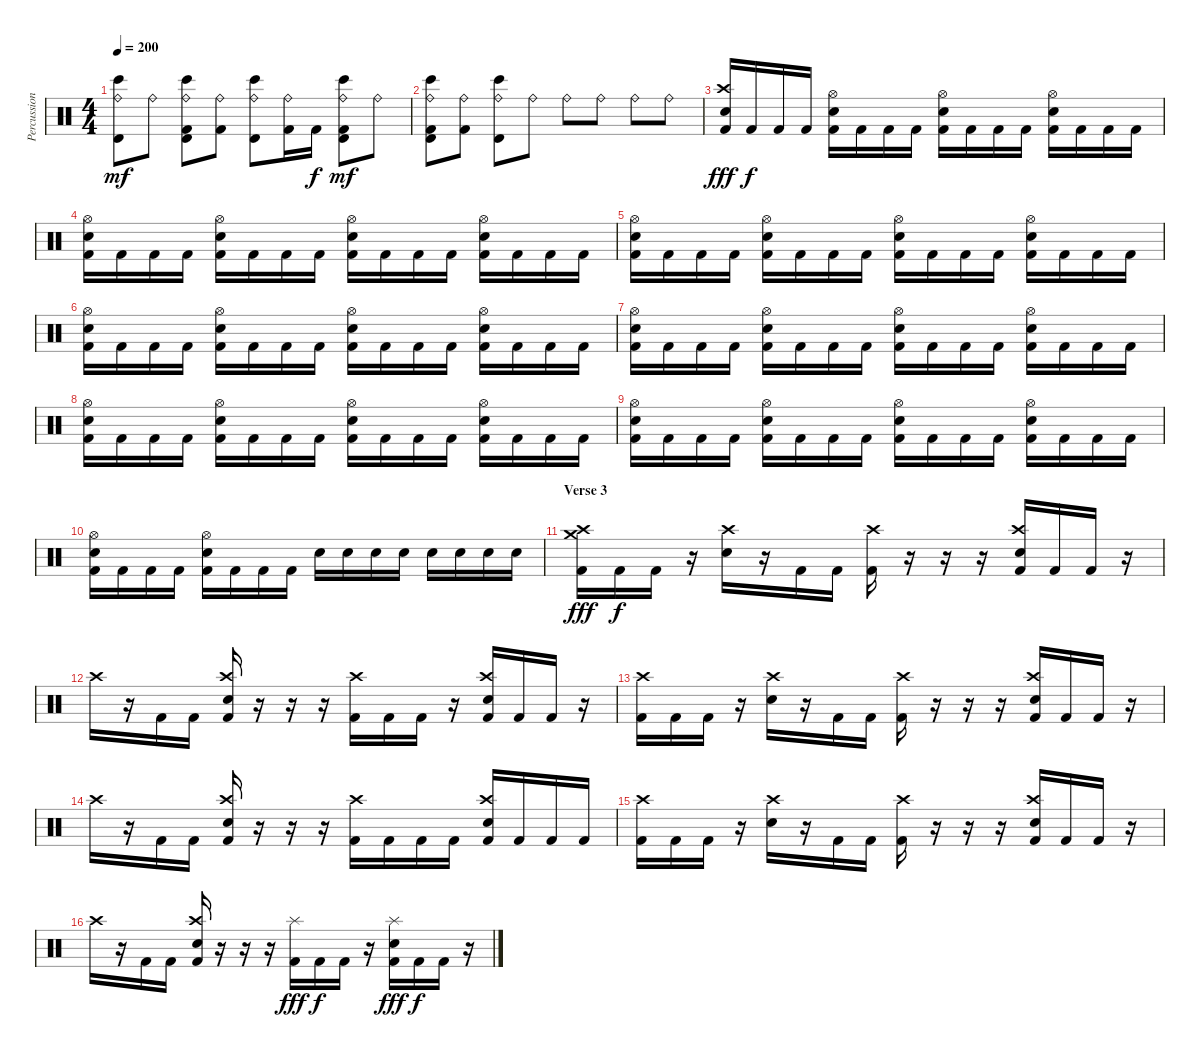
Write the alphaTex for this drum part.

\track ("Percussions" "Percussion") {instrument percussion}
\staff {score}
\articulation defaults
\ts (4 4)
\tempo 200
\clef neutral
\ks c
("Ride (bell)" "Timbale high (hit)" "Bongo High (hit)").8{dy mf} "Ride (bell)".8 ("Ride (bell)" "Timbale high (hit)" "Bongo High (hit)" "Kick (hit) 2").8 ("Ride (bell)" "Kick (hit) 2").8 ("Ride (bell)" "Timbale high (hit)" "Bongo High (hit)").8 ("Ride (bell)" "Kick (hit) 2").16 "Kick (hit) 2".16{dy f} ("Ride (bell)" "Timbale high (hit)" "Bongo High (hit)" "Kick (hit) 2").8{dy mf} "Ride (bell)".8 |
("Ride (bell)" "Timbale high (hit)" "Bongo High (hit)" "Kick (hit) 2").8 ("Ride (bell)" "Kick (hit) 2").8 ("Ride (bell)" "Timbale high (hit)" "Bongo High (hit)").8 "Ride (bell)".8 "Ride (bell)".8 "Ride (bell)".8 "Ride (bell)".8 "Ride (bell)".8 |
("Crash high (hit)" "Electric Snare (hit)" "Kick (hit) 2").16{dy fff} "Kick (hit) 2".16{dy f} "Kick (hit) 2".16 "Kick (hit) 2".16 ("Hi-Hat (open)" "Electric Snare (hit)" "Kick (hit) 2").16 "Kick (hit) 2".16 "Kick (hit) 2".16 "Kick (hit) 2".16 ("Hi-Hat (open)" "Electric Snare (hit)" "Kick (hit) 2").16 "Kick (hit) 2".16 "Kick (hit) 2".16 "Kick (hit) 2".16 ("Hi-Hat (open)" "Electric Snare (hit)" "Kick (hit) 2").16 "Kick (hit) 2".16 "Kick (hit) 2".16 "Kick (hit) 2".16 |
("Hi-Hat (open)" "Electric Snare (hit)" "Kick (hit) 2").16 "Kick (hit) 2".16 "Kick (hit) 2".16 "Kick (hit) 2".16 ("Hi-Hat (open)" "Electric Snare (hit)" "Kick (hit) 2").16 "Kick (hit) 2".16 "Kick (hit) 2".16 "Kick (hit) 2".16 ("Hi-Hat (open)" "Electric Snare (hit)" "Kick (hit) 2").16 "Kick (hit) 2".16 "Kick (hit) 2".16 "Kick (hit) 2".16 ("Hi-Hat (open)" "Electric Snare (hit)" "Kick (hit) 2").16 "Kick (hit) 2".16 "Kick (hit) 2".16 "Kick (hit) 2".16 |
("Hi-Hat (open)" "Electric Snare (hit)" "Kick (hit) 2").16 "Kick (hit) 2".16 "Kick (hit) 2".16 "Kick (hit) 2".16 ("Hi-Hat (open)" "Electric Snare (hit)" "Kick (hit) 2").16 "Kick (hit) 2".16 "Kick (hit) 2".16 "Kick (hit) 2".16 ("Hi-Hat (open)" "Electric Snare (hit)" "Kick (hit) 2").16 "Kick (hit) 2".16 "Kick (hit) 2".16 "Kick (hit) 2".16 ("Hi-Hat (open)" "Electric Snare (hit)" "Kick (hit) 2").16 "Kick (hit) 2".16 "Kick (hit) 2".16 "Kick (hit) 2".16 |
("Hi-Hat (open)" "Electric Snare (hit)" "Kick (hit) 2").16 "Kick (hit) 2".16 "Kick (hit) 2".16 "Kick (hit) 2".16 ("Hi-Hat (open)" "Electric Snare (hit)" "Kick (hit) 2").16 "Kick (hit) 2".16 "Kick (hit) 2".16 "Kick (hit) 2".16 ("Hi-Hat (open)" "Electric Snare (hit)" "Kick (hit) 2").16 "Kick (hit) 2".16 "Kick (hit) 2".16 "Kick (hit) 2".16 ("Hi-Hat (open)" "Electric Snare (hit)" "Kick (hit) 2").16 "Kick (hit) 2".16 "Kick (hit) 2".16 "Kick (hit) 2".16 |
("Hi-Hat (open)" "Electric Snare (hit)" "Kick (hit) 2").16 "Kick (hit) 2".16 "Kick (hit) 2".16 "Kick (hit) 2".16 ("Hi-Hat (open)" "Electric Snare (hit)" "Kick (hit) 2").16 "Kick (hit) 2".16 "Kick (hit) 2".16 "Kick (hit) 2".16 ("Hi-Hat (open)" "Electric Snare (hit)" "Kick (hit) 2").16 "Kick (hit) 2".16 "Kick (hit) 2".16 "Kick (hit) 2".16 ("Hi-Hat (open)" "Electric Snare (hit)" "Kick (hit) 2").16 "Kick (hit) 2".16 "Kick (hit) 2".16 "Kick (hit) 2".16 |
("Hi-Hat (open)" "Electric Snare (hit)" "Kick (hit) 2").16 "Kick (hit) 2".16 "Kick (hit) 2".16 "Kick (hit) 2".16 ("Hi-Hat (open)" "Electric Snare (hit)" "Kick (hit) 2").16 "Kick (hit) 2".16 "Kick (hit) 2".16 "Kick (hit) 2".16 ("Hi-Hat (open)" "Electric Snare (hit)" "Kick (hit) 2").16 "Kick (hit) 2".16 "Kick (hit) 2".16 "Kick (hit) 2".16 ("Hi-Hat (open)" "Electric Snare (hit)" "Kick (hit) 2").16 "Kick (hit) 2".16 "Kick (hit) 2".16 "Kick (hit) 2".16 |
("Hi-Hat (open)" "Electric Snare (hit)" "Kick (hit) 2").16 "Kick (hit) 2".16 "Kick (hit) 2".16 "Kick (hit) 2".16 ("Hi-Hat (open)" "Electric Snare (hit)" "Kick (hit) 2").16 "Kick (hit) 2".16 "Kick (hit) 2".16 "Kick (hit) 2".16 ("Hi-Hat (open)" "Electric Snare (hit)" "Kick (hit) 2").16 "Kick (hit) 2".16 "Kick (hit) 2".16 "Kick (hit) 2".16 ("Hi-Hat (open)" "Electric Snare (hit)" "Kick (hit) 2").16 "Kick (hit) 2".16 "Kick (hit) 2".16 "Kick (hit) 2".16 |
("Hi-Hat (open)" "Electric Snare (hit)" "Kick (hit) 2").16 "Kick (hit) 2".16 "Kick (hit) 2".16 "Kick (hit) 2".16 ("Hi-Hat (open)" "Electric Snare (hit)" "Kick (hit) 2").16 "Kick (hit) 2".16 "Kick (hit) 2".16 "Kick (hit) 2".16 "Electric Snare (hit)".16 "Electric Snare (hit)".16 "Electric Snare (hit)".16 "Electric Snare (hit)".16 "Electric Snare (hit)".16 "Electric Snare (hit)".16 "Electric Snare (hit)".16 "Electric Snare (hit)".16 |
\section ("" "Verse 3")
("Crash medium (hit)" "Crash high (hit)" "Kick (hit) 2").16{dy fff} "Kick (hit) 2".16{dy f} "Kick (hit) 2".16 r.16 ("Crash high (hit)" "Electric Snare (hit)").16 r.16 "Kick (hit) 2".16 "Kick (hit) 2".16 ("Crash high (hit)" "Kick (hit) 2").16 r.16 r.16 r.16 ("Crash high (hit)" "Electric Snare (hit)" "Kick (hit) 2").16 "Kick (hit) 2".16 "Kick (hit) 2".16 r.16 |
"Crash high (hit)".16 r.16 "Kick (hit) 2".16 "Kick (hit) 2".16 ("Crash high (hit)" "Electric Snare (hit)" "Kick (hit) 2").16 r.16 r.16 r.16 ("Crash high (hit)" "Kick (hit) 2").16 "Kick (hit) 2".16 "Kick (hit) 2".16 r.16 ("Crash high (hit)" "Electric Snare (hit)" "Kick (hit) 2").16 "Kick (hit) 2".16 "Kick (hit) 2".16 r.16 |
("Crash high (hit)" "Kick (hit) 2").16 "Kick (hit) 2".16 "Kick (hit) 2".16 r.16 ("Crash high (hit)" "Electric Snare (hit)").16 r.16 "Kick (hit) 2".16 "Kick (hit) 2".16 ("Crash high (hit)" "Kick (hit) 2").16 r.16 r.16 r.16 ("Crash high (hit)" "Electric Snare (hit)" "Kick (hit) 2").16 "Kick (hit) 2".16 "Kick (hit) 2".16 r.16 |
"Crash high (hit)".16 r.16 "Kick (hit) 2".16 "Kick (hit) 2".16 ("Crash high (hit)" "Electric Snare (hit)" "Kick (hit) 2").16 r.16 r.16 r.16 ("Crash high (hit)" "Kick (hit) 2").16 "Kick (hit) 2".16 "Kick (hit) 2".16 "Kick (hit) 2".16 ("Crash high (hit)" "Electric Snare (hit)" "Kick (hit) 2").16 "Kick (hit) 2".16 "Kick (hit) 2".16 "Kick (hit) 2".16 |
("Crash high (hit)" "Kick (hit) 2").16 "Kick (hit) 2".16 "Kick (hit) 2".16 r.16 ("Crash high (hit)" "Electric Snare (hit)").16 r.16 "Kick (hit) 2".16 "Kick (hit) 2".16 ("Crash high (hit)" "Kick (hit) 2").16 r.16 r.16 r.16 ("Crash high (hit)" "Electric Snare (hit)" "Kick (hit) 2").16 "Kick (hit) 2".16 "Kick (hit) 2".16 r.16 |
"Crash high (hit)".16 r.16 "Kick (hit) 2".16 "Kick (hit) 2".16 ("Crash high (hit)" "Electric Snare (hit)" "Kick (hit) 2").16 r.16 r.16 r.16 ("Splash (hit)" "Kick (hit) 2").16{dy fff} "Kick (hit) 2".16{dy f} "Kick (hit) 2".16 r.16 ("Splash (hit)" "Electric Snare (hit)" "Kick (hit) 2").16{dy fff} "Kick (hit) 2".16{dy f} "Kick (hit) 2".16 r.16
